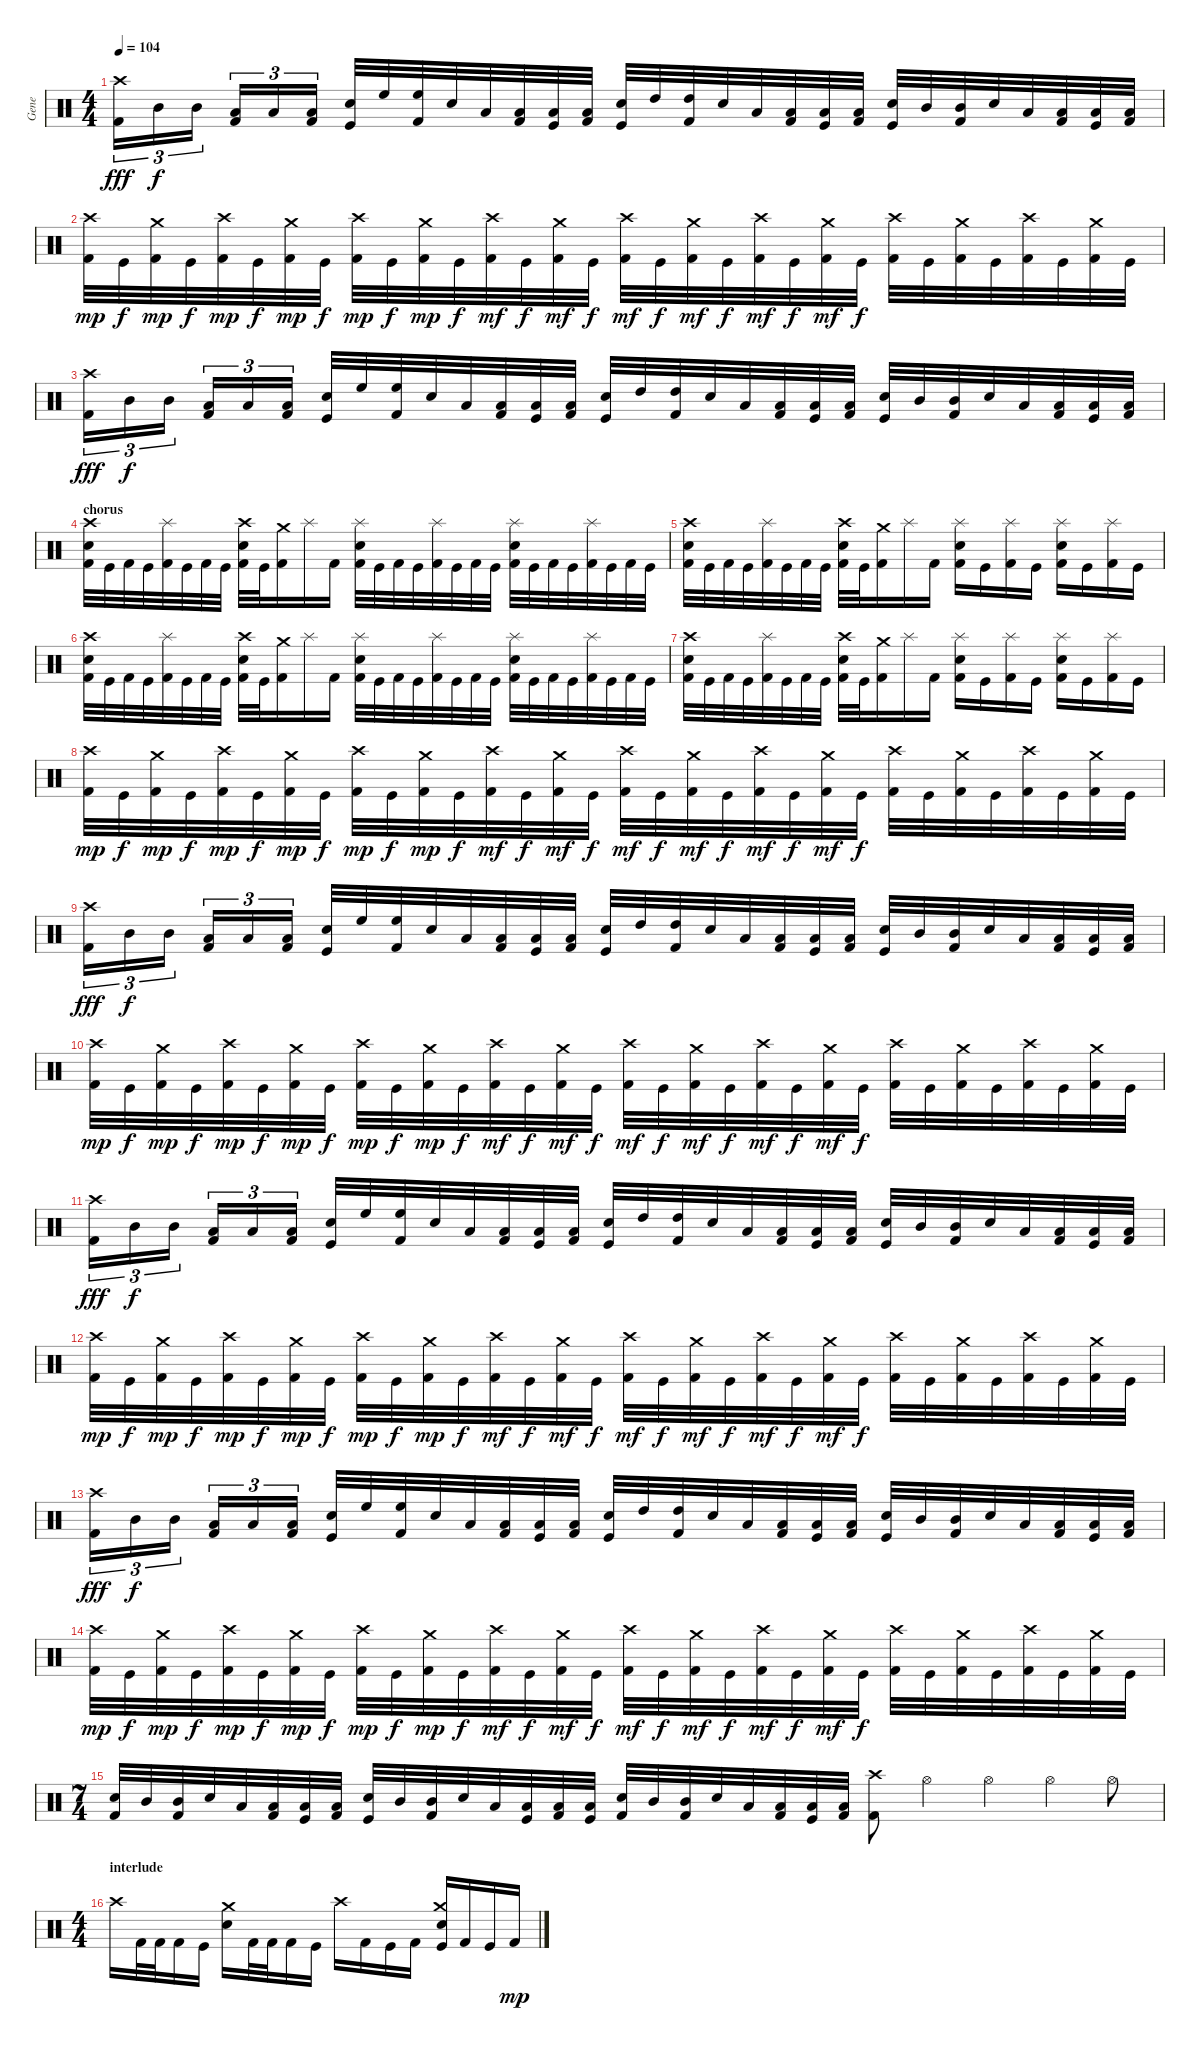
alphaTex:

\track ("Gene" "Gene") {instrument percussion}
\staff {score}
\articulation defaults
\ts (4 4)
\tempo 104
\clef neutral
\ks c
("Crash high (hit)" "Kick (hit) 2").16{tu (3 2) dy fff} "Mid Tom (hit)".16{tu (3 2) dy f} "Mid Tom (hit)".16{tu (3 2)} ("Low Tom (hit)" "Kick (hit) 2").16{tu (3 2)} "Low Tom (hit)".16{tu (3 2)} ("Low Tom (hit)" "Kick (hit) 2").16{tu (3 2)} ("Electric Snare (hit)" "Kick (hit)").32 "High Floor Tom (hit)".32 ("High Floor Tom (hit)" "Kick (hit) 2").32 "Electric Snare (hit)".32 "Low Tom (hit)".32 ("Low Tom (hit)" "Kick (hit) 2").32 ("Low Tom (hit)" "Kick (hit)").32 ("Low Tom (hit)" "Kick (hit) 2").32 ("Electric Snare (hit)" "Kick (hit)").32 "High Tom (hit)".32 ("High Tom (hit)" "Kick (hit) 2").32 "Electric Snare (hit)".32 "Low Tom (hit)".32 ("Low Tom (hit)" "Kick (hit) 2").32 ("Low Tom (hit)" "Kick (hit)").32 ("Low Tom (hit)" "Kick (hit) 2").32 ("Electric Snare (hit)" "Kick (hit)").32 "Mid Tom (hit)".32 ("Mid Tom (hit)" "Kick (hit) 2").32 "Electric Snare (hit)".32 "Low Tom (hit)".32 ("Low Tom (hit)" "Kick (hit) 2").32 ("Low Tom (hit)" "Kick (hit)").32 ("Low Tom (hit)" "Kick (hit) 2").32 |
("Crash high (hit)" "Kick (hit) 2").32{dy mp} "Kick (hit)".32{dy f} ("Crash medium (hit)" "Kick (hit) 2").32{dy mp} "Kick (hit)".32{dy f} ("Crash high (hit)" "Kick (hit) 2").32{dy mp} "Kick (hit)".32{dy f} ("Crash medium (hit)" "Kick (hit) 2").32{dy mp} "Kick (hit)".32{dy f} ("Crash high (hit)" "Kick (hit) 2").32{dy mp} "Kick (hit)".32{dy f} ("Crash medium (hit)" "Kick (hit) 2").32{dy mp} "Kick (hit)".32{dy f} ("Crash high (hit)" "Kick (hit) 2").32{dy mf} "Kick (hit)".32{dy f} ("Crash medium (hit)" "Kick (hit) 2").32{dy mf} "Kick (hit)".32{dy f} ("Crash high (hit)" "Kick (hit) 2").32{dy mf} "Kick (hit)".32{dy f} ("Crash medium (hit)" "Kick (hit) 2").32{dy mf} "Kick (hit)".32{dy f} ("Crash high (hit)" "Kick (hit) 2").32{dy mf} "Kick (hit)".32{dy f} ("Crash medium (hit)" "Kick (hit) 2").32{dy mf} "Kick (hit)".32{dy f} ("Crash high (hit)" "Kick (hit) 2").32 "Kick (hit)".32 ("Crash medium (hit)" "Kick (hit) 2").32 "Kick (hit)".32 ("Crash high (hit)" "Kick (hit) 2").32 "Kick (hit)".32 ("Crash medium (hit)" "Kick (hit) 2").32 "Kick (hit)".32 |
("Crash high (hit)" "Kick (hit) 2").16{tu (3 2) dy fff} "Mid Tom (hit)".16{tu (3 2) dy f} "Mid Tom (hit)".16{tu (3 2)} ("Low Tom (hit)" "Kick (hit) 2").16{tu (3 2)} "Low Tom (hit)".16{tu (3 2)} ("Low Tom (hit)" "Kick (hit) 2").16{tu (3 2)} ("Electric Snare (hit)" "Kick (hit)").32 "High Floor Tom (hit)".32 ("High Floor Tom (hit)" "Kick (hit) 2").32 "Electric Snare (hit)".32 "Low Tom (hit)".32 ("Low Tom (hit)" "Kick (hit) 2").32 ("Low Tom (hit)" "Kick (hit)").32 ("Low Tom (hit)" "Kick (hit) 2").32 ("Electric Snare (hit)" "Kick (hit)").32 "High Tom (hit)".32 ("High Tom (hit)" "Kick (hit) 2").32 "Electric Snare (hit)".32 "Low Tom (hit)".32 ("Low Tom (hit)" "Kick (hit) 2").32 ("Low Tom (hit)" "Kick (hit)").32 ("Low Tom (hit)" "Kick (hit) 2").32 ("Electric Snare (hit)" "Kick (hit)").32 "Mid Tom (hit)".32 ("Mid Tom (hit)" "Kick (hit) 2").32 "Electric Snare (hit)".32 "Low Tom (hit)".32 ("Low Tom (hit)" "Kick (hit) 2").32 ("Low Tom (hit)" "Kick (hit)").32 ("Low Tom (hit)" "Kick (hit) 2").32 |
\section ("" "chorus")
("Crash high (hit)" "Snare (hit) 2" "Kick (hit) 2").32 "Kick (hit)".32 "Kick (hit) 2".32 "Kick (hit)".32 ("Splash (hit)" "Kick (hit) 2").32 "Kick (hit)".32 "Kick (hit) 2".32 "Kick (hit)".32 ("Crash high (hit)" "Snare (hit) 2" "Kick (hit) 2").32 "Kick (hit)".32 ("Crash medium (hit)" "Kick (hit) 2").16 "Splash (hit)".16 "Kick (hit) 2".16 ("Splash (hit)" "Snare (hit) 2" "Kick (hit) 2").32 "Kick (hit)".32 "Kick (hit) 2".32 "Kick (hit)".32 ("Splash (hit)" "Kick (hit) 2").32 "Kick (hit)".32 "Kick (hit) 2".32 "Kick (hit)".32 ("Splash (hit)" "Snare (hit) 2" "Kick (hit) 2").32 "Kick (hit)".32 "Kick (hit) 2".32 "Kick (hit)".32 ("Splash (hit)" "Kick (hit) 2").32 "Kick (hit)".32 "Kick (hit) 2".32 "Kick (hit)".32 |
("Crash high (hit)" "Snare (hit) 2" "Kick (hit) 2").32 "Kick (hit)".32 "Kick (hit) 2".32 "Kick (hit)".32 ("Splash (hit)" "Kick (hit) 2").32 "Kick (hit)".32 "Kick (hit) 2".32 "Kick (hit)".32 ("Crash high (hit)" "Snare (hit) 2" "Kick (hit) 2").32 "Kick (hit)".32 ("Crash medium (hit)" "Kick (hit) 2").16 "Splash (hit)".16 "Kick (hit) 2".16 ("Splash (hit)" "Snare (hit) 2" "Kick (hit) 2").16 "Kick (hit)".16 ("Splash (hit)" "Kick (hit) 2").16 "Kick (hit)".16 ("Splash (hit)" "Snare (hit) 2" "Kick (hit) 2").16 "Kick (hit)".16 ("Splash (hit)" "Kick (hit) 2").16 "Kick (hit)".16 |
("Crash high (hit)" "Snare (hit) 2" "Kick (hit) 2").32 "Kick (hit)".32 "Kick (hit) 2".32 "Kick (hit)".32 ("Splash (hit)" "Kick (hit) 2").32 "Kick (hit)".32 "Kick (hit) 2".32 "Kick (hit)".32 ("Crash high (hit)" "Snare (hit) 2" "Kick (hit) 2").32 "Kick (hit)".32 ("Crash medium (hit)" "Kick (hit) 2").16 "Splash (hit)".16 "Kick (hit) 2".16 ("Splash (hit)" "Snare (hit) 2" "Kick (hit) 2").32 "Kick (hit)".32 "Kick (hit) 2".32 "Kick (hit)".32 ("Splash (hit)" "Kick (hit) 2").32 "Kick (hit)".32 "Kick (hit) 2".32 "Kick (hit)".32 ("Splash (hit)" "Snare (hit) 2" "Kick (hit) 2").32 "Kick (hit)".32 "Kick (hit) 2".32 "Kick (hit)".32 ("Splash (hit)" "Kick (hit) 2").32 "Kick (hit)".32 "Kick (hit) 2".32 "Kick (hit)".32 |
("Crash high (hit)" "Snare (hit) 2" "Kick (hit) 2").32 "Kick (hit)".32 "Kick (hit) 2".32 "Kick (hit)".32 ("Splash (hit)" "Kick (hit) 2").32 "Kick (hit)".32 "Kick (hit) 2".32 "Kick (hit)".32 ("Crash high (hit)" "Snare (hit) 2" "Kick (hit) 2").32 "Kick (hit)".32 ("Crash medium (hit)" "Kick (hit) 2").16 "Splash (hit)".16 "Kick (hit) 2".16 ("Splash (hit)" "Snare (hit) 2" "Kick (hit) 2").16 "Kick (hit)".16 ("Splash (hit)" "Kick (hit) 2").16 "Kick (hit)".16 ("Splash (hit)" "Snare (hit) 2" "Kick (hit) 2").16 "Kick (hit)".16 ("Splash (hit)" "Kick (hit) 2").16 "Kick (hit)".16 |
("Crash high (hit)" "Kick (hit) 2").32{dy mp} "Kick (hit)".32{dy f} ("Crash medium (hit)" "Kick (hit) 2").32{dy mp} "Kick (hit)".32{dy f} ("Crash high (hit)" "Kick (hit) 2").32{dy mp} "Kick (hit)".32{dy f} ("Crash medium (hit)" "Kick (hit) 2").32{dy mp} "Kick (hit)".32{dy f} ("Crash high (hit)" "Kick (hit) 2").32{dy mp} "Kick (hit)".32{dy f} ("Crash medium (hit)" "Kick (hit) 2").32{dy mp} "Kick (hit)".32{dy f} ("Crash high (hit)" "Kick (hit) 2").32{dy mf} "Kick (hit)".32{dy f} ("Crash medium (hit)" "Kick (hit) 2").32{dy mf} "Kick (hit)".32{dy f} ("Crash high (hit)" "Kick (hit) 2").32{dy mf} "Kick (hit)".32{dy f} ("Crash medium (hit)" "Kick (hit) 2").32{dy mf} "Kick (hit)".32{dy f} ("Crash high (hit)" "Kick (hit) 2").32{dy mf} "Kick (hit)".32{dy f} ("Crash medium (hit)" "Kick (hit) 2").32{dy mf} "Kick (hit)".32{dy f} ("Crash high (hit)" "Kick (hit) 2").32 "Kick (hit)".32 ("Crash medium (hit)" "Kick (hit) 2").32 "Kick (hit)".32 ("Crash high (hit)" "Kick (hit) 2").32 "Kick (hit)".32 ("Crash medium (hit)" "Kick (hit) 2").32 "Kick (hit)".32 |
("Crash high (hit)" "Kick (hit) 2").16{tu (3 2) dy fff} "Mid Tom (hit)".16{tu (3 2) dy f} "Mid Tom (hit)".16{tu (3 2)} ("Low Tom (hit)" "Kick (hit) 2").16{tu (3 2)} "Low Tom (hit)".16{tu (3 2)} ("Low Tom (hit)" "Kick (hit) 2").16{tu (3 2)} ("Electric Snare (hit)" "Kick (hit)").32 "High Floor Tom (hit)".32 ("High Floor Tom (hit)" "Kick (hit) 2").32 "Electric Snare (hit)".32 "Low Tom (hit)".32 ("Low Tom (hit)" "Kick (hit) 2").32 ("Low Tom (hit)" "Kick (hit)").32 ("Low Tom (hit)" "Kick (hit) 2").32 ("Electric Snare (hit)" "Kick (hit)").32 "High Tom (hit)".32 ("High Tom (hit)" "Kick (hit) 2").32 "Electric Snare (hit)".32 "Low Tom (hit)".32 ("Low Tom (hit)" "Kick (hit) 2").32 ("Low Tom (hit)" "Kick (hit)").32 ("Low Tom (hit)" "Kick (hit) 2").32 ("Electric Snare (hit)" "Kick (hit)").32 "Mid Tom (hit)".32 ("Mid Tom (hit)" "Kick (hit) 2").32 "Electric Snare (hit)".32 "Low Tom (hit)".32 ("Low Tom (hit)" "Kick (hit) 2").32 ("Low Tom (hit)" "Kick (hit)").32 ("Low Tom (hit)" "Kick (hit) 2").32 |
("Crash high (hit)" "Kick (hit) 2").32{dy mp} "Kick (hit)".32{dy f} ("Crash medium (hit)" "Kick (hit) 2").32{dy mp} "Kick (hit)".32{dy f} ("Crash high (hit)" "Kick (hit) 2").32{dy mp} "Kick (hit)".32{dy f} ("Crash medium (hit)" "Kick (hit) 2").32{dy mp} "Kick (hit)".32{dy f} ("Crash high (hit)" "Kick (hit) 2").32{dy mp} "Kick (hit)".32{dy f} ("Crash medium (hit)" "Kick (hit) 2").32{dy mp} "Kick (hit)".32{dy f} ("Crash high (hit)" "Kick (hit) 2").32{dy mf} "Kick (hit)".32{dy f} ("Crash medium (hit)" "Kick (hit) 2").32{dy mf} "Kick (hit)".32{dy f} ("Crash high (hit)" "Kick (hit) 2").32{dy mf} "Kick (hit)".32{dy f} ("Crash medium (hit)" "Kick (hit) 2").32{dy mf} "Kick (hit)".32{dy f} ("Crash high (hit)" "Kick (hit) 2").32{dy mf} "Kick (hit)".32{dy f} ("Crash medium (hit)" "Kick (hit) 2").32{dy mf} "Kick (hit)".32{dy f} ("Crash high (hit)" "Kick (hit) 2").32 "Kick (hit)".32 ("Crash medium (hit)" "Kick (hit) 2").32 "Kick (hit)".32 ("Crash high (hit)" "Kick (hit) 2").32 "Kick (hit)".32 ("Crash medium (hit)" "Kick (hit) 2").32 "Kick (hit)".32 |
("Crash high (hit)" "Kick (hit) 2").16{tu (3 2) dy fff} "Mid Tom (hit)".16{tu (3 2) dy f} "Mid Tom (hit)".16{tu (3 2)} ("Low Tom (hit)" "Kick (hit) 2").16{tu (3 2)} "Low Tom (hit)".16{tu (3 2)} ("Low Tom (hit)" "Kick (hit) 2").16{tu (3 2)} ("Electric Snare (hit)" "Kick (hit)").32 "High Floor Tom (hit)".32 ("High Floor Tom (hit)" "Kick (hit) 2").32 "Electric Snare (hit)".32 "Low Tom (hit)".32 ("Low Tom (hit)" "Kick (hit) 2").32 ("Low Tom (hit)" "Kick (hit)").32 ("Low Tom (hit)" "Kick (hit) 2").32 ("Electric Snare (hit)" "Kick (hit)").32 "High Tom (hit)".32 ("High Tom (hit)" "Kick (hit) 2").32 "Electric Snare (hit)".32 "Low Tom (hit)".32 ("Low Tom (hit)" "Kick (hit) 2").32 ("Low Tom (hit)" "Kick (hit)").32 ("Low Tom (hit)" "Kick (hit) 2").32 ("Electric Snare (hit)" "Kick (hit)").32 "Mid Tom (hit)".32 ("Mid Tom (hit)" "Kick (hit) 2").32 "Electric Snare (hit)".32 "Low Tom (hit)".32 ("Low Tom (hit)" "Kick (hit) 2").32 ("Low Tom (hit)" "Kick (hit)").32 ("Low Tom (hit)" "Kick (hit) 2").32 |
("Crash high (hit)" "Kick (hit) 2").32{dy mp} "Kick (hit)".32{dy f} ("Crash medium (hit)" "Kick (hit) 2").32{dy mp} "Kick (hit)".32{dy f} ("Crash high (hit)" "Kick (hit) 2").32{dy mp} "Kick (hit)".32{dy f} ("Crash medium (hit)" "Kick (hit) 2").32{dy mp} "Kick (hit)".32{dy f} ("Crash high (hit)" "Kick (hit) 2").32{dy mp} "Kick (hit)".32{dy f} ("Crash medium (hit)" "Kick (hit) 2").32{dy mp} "Kick (hit)".32{dy f} ("Crash high (hit)" "Kick (hit) 2").32{dy mf} "Kick (hit)".32{dy f} ("Crash medium (hit)" "Kick (hit) 2").32{dy mf} "Kick (hit)".32{dy f} ("Crash high (hit)" "Kick (hit) 2").32{dy mf} "Kick (hit)".32{dy f} ("Crash medium (hit)" "Kick (hit) 2").32{dy mf} "Kick (hit)".32{dy f} ("Crash high (hit)" "Kick (hit) 2").32{dy mf} "Kick (hit)".32{dy f} ("Crash medium (hit)" "Kick (hit) 2").32{dy mf} "Kick (hit)".32{dy f} ("Crash high (hit)" "Kick (hit) 2").32 "Kick (hit)".32 ("Crash medium (hit)" "Kick (hit) 2").32 "Kick (hit)".32 ("Crash high (hit)" "Kick (hit) 2").32 "Kick (hit)".32 ("Crash medium (hit)" "Kick (hit) 2").32 "Kick (hit)".32 |
("Crash high (hit)" "Kick (hit) 2").16{tu (3 2) dy fff} "Mid Tom (hit)".16{tu (3 2) dy f} "Mid Tom (hit)".16{tu (3 2)} ("Low Tom (hit)" "Kick (hit) 2").16{tu (3 2)} "Low Tom (hit)".16{tu (3 2)} ("Low Tom (hit)" "Kick (hit) 2").16{tu (3 2)} ("Electric Snare (hit)" "Kick (hit)").32 "High Floor Tom (hit)".32 ("High Floor Tom (hit)" "Kick (hit) 2").32 "Electric Snare (hit)".32 "Low Tom (hit)".32 ("Low Tom (hit)" "Kick (hit) 2").32 ("Low Tom (hit)" "Kick (hit)").32 ("Low Tom (hit)" "Kick (hit) 2").32 ("Electric Snare (hit)" "Kick (hit)").32 "High Tom (hit)".32 ("High Tom (hit)" "Kick (hit) 2").32 "Electric Snare (hit)".32 "Low Tom (hit)".32 ("Low Tom (hit)" "Kick (hit) 2").32 ("Low Tom (hit)" "Kick (hit)").32 ("Low Tom (hit)" "Kick (hit) 2").32 ("Electric Snare (hit)" "Kick (hit)").32 "Mid Tom (hit)".32 ("Mid Tom (hit)" "Kick (hit) 2").32 "Electric Snare (hit)".32 "Low Tom (hit)".32 ("Low Tom (hit)" "Kick (hit) 2").32 ("Low Tom (hit)" "Kick (hit)").32 ("Low Tom (hit)" "Kick (hit) 2").32 |
("Crash high (hit)" "Kick (hit) 2").32{dy mp} "Kick (hit)".32{dy f} ("Crash medium (hit)" "Kick (hit) 2").32{dy mp} "Kick (hit)".32{dy f} ("Crash high (hit)" "Kick (hit) 2").32{dy mp} "Kick (hit)".32{dy f} ("Crash medium (hit)" "Kick (hit) 2").32{dy mp} "Kick (hit)".32{dy f} ("Crash high (hit)" "Kick (hit) 2").32{dy mp} "Kick (hit)".32{dy f} ("Crash medium (hit)" "Kick (hit) 2").32{dy mp} "Kick (hit)".32{dy f} ("Crash high (hit)" "Kick (hit) 2").32{dy mf} "Kick (hit)".32{dy f} ("Crash medium (hit)" "Kick (hit) 2").32{dy mf} "Kick (hit)".32{dy f} ("Crash high (hit)" "Kick (hit) 2").32{dy mf} "Kick (hit)".32{dy f} ("Crash medium (hit)" "Kick (hit) 2").32{dy mf} "Kick (hit)".32{dy f} ("Crash high (hit)" "Kick (hit) 2").32{dy mf} "Kick (hit)".32{dy f} ("Crash medium (hit)" "Kick (hit) 2").32{dy mf} "Kick (hit)".32{dy f} ("Crash high (hit)" "Kick (hit) 2").32 "Kick (hit)".32 ("Crash medium (hit)" "Kick (hit) 2").32 "Kick (hit)".32 ("Crash high (hit)" "Kick (hit) 2").32 "Kick (hit)".32 ("Crash medium (hit)" "Kick (hit) 2").32 "Kick (hit)".32 |
\ts (7 4)
("Electric Snare (hit)" "Kick (hit) 2").32 "Mid Tom (hit)".32 ("Mid Tom (hit)" "Kick (hit) 2").32 "Electric Snare (hit)".32 "Low Tom (hit)".32 ("Low Tom (hit)" "Kick (hit) 2").32 ("Low Tom (hit)" "Kick (hit)").32 ("Low Tom (hit)" "Kick (hit) 2").32 ("Electric Snare (hit)" "Kick (hit)").32 "Mid Tom (hit)".32 ("Mid Tom (hit)" "Kick (hit) 2").32 "Electric Snare (hit)".32 "Low Tom (hit)".32 ("Low Tom (hit)" "Kick (hit)").32 ("Low Tom (hit)" "Kick (hit) 2").32 ("Low Tom (hit)" "Kick (hit)").32 ("Electric Snare (hit)" "Kick (hit) 2").32 "Mid Tom (hit)".32 ("Mid Tom (hit)" "Kick (hit) 2").32 "Electric Snare (hit)".32 "Low Tom (hit)".32 ("Low Tom (hit)" "Kick (hit) 2").32 ("Low Tom (hit)" "Kick (hit)").32 ("Low Tom (hit)" "Kick (hit) 2").32 ("Crash high (hit)" "Kick (hit) 2").8 "Hi-Hat (open)".4 "Hi-Hat (open)".4 "Hi-Hat (open)".4 "Hi-Hat (open)".8 |
\ts (4 4)
\section ("" "interlude")
"Crash high (hit)".16 "Kick (hit) 2".32 "Kick (hit) 2".32 "Kick (hit) 2".16 "Kick (hit)".16 ("Crash medium (hit)" "Snare (hit) 2").16 "Kick (hit) 2".32 "Kick (hit) 2".32 "Kick (hit) 2".16 "Kick (hit)".16 "Crash high (hit)".16 "Kick (hit) 2".16 "Kick (hit)".16 "Kick (hit) 2".16 ("Crash medium (hit)" "Snare (hit) 2" "Kick (hit)").16 "Kick (hit) 2".16 "Kick (hit)".16 "Kick (hit) 2".16{dy mp}
